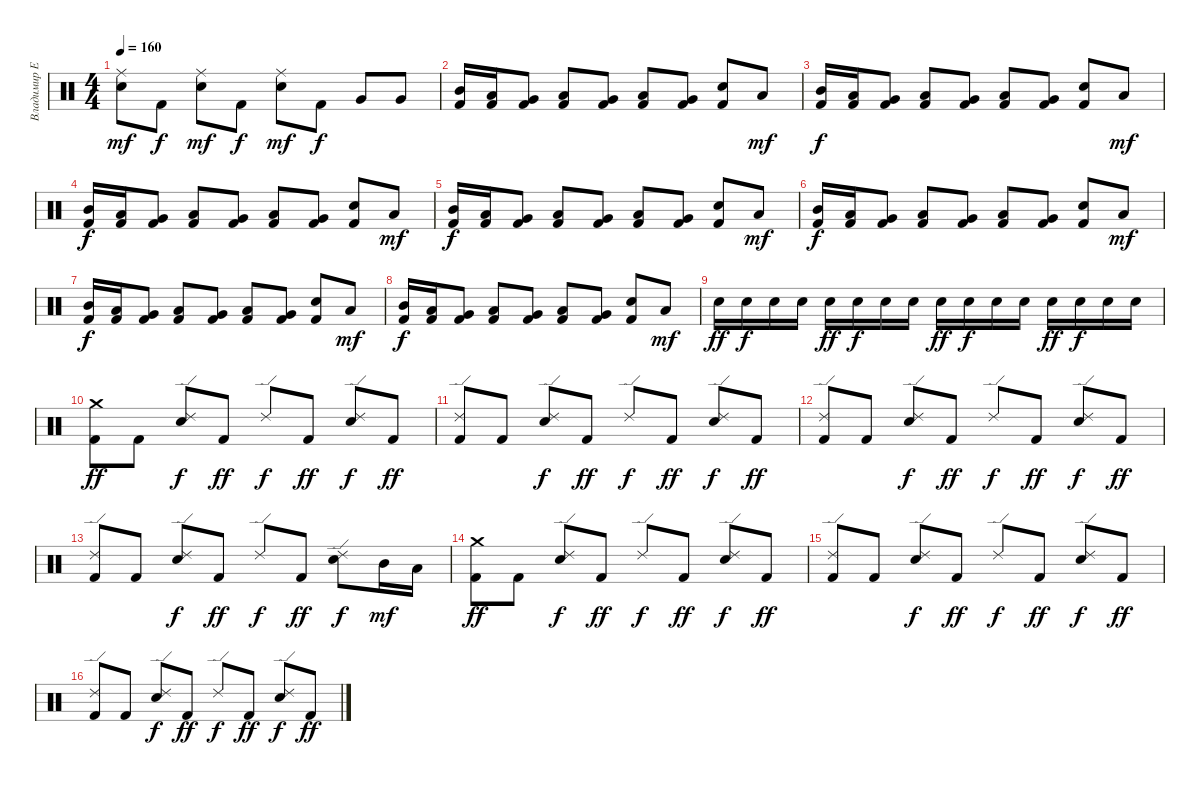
\track ("Владимир Ермаков" "Владимир Е") {instrument percussion}
\staff {score}
\articulation defaults
\ts (4 4)
\tempo 160
\clef neutral
\ks c
("Ride (middle)" "Electric Snare (hit)").8{dy mf} "Kick (hit) 2".8{dy f} ("Ride (middle)" "Electric Snare (hit)").8{dy mf} "Kick (hit) 2".8{dy f} ("Ride (middle)" "Electric Snare (hit)").8{dy mf} "Kick (hit) 2".8{dy f} "Very Low Tom (hit)".8 "Very Low Tom (hit)".8 |
("Kick (hit) 2" "Mid Tom (hit)").16 ("Kick (hit) 2" "Low Tom (hit)").16 ("Kick (hit) 2" "Very Low Tom (hit)").8 ("Kick (hit) 2" "Low Tom (hit)").8 ("Kick (hit) 2" "Very Low Tom (hit)").8 ("Kick (hit) 2" "Low Tom (hit)").8 ("Kick (hit) 2" "Very Low Tom (hit)").8 ("Kick (hit) 2" "Electric Snare (hit)").8 "Low Tom (hit)".8{dy mf} |
("Kick (hit) 2" "Mid Tom (hit)").16{dy f} ("Kick (hit) 2" "Low Tom (hit)").16 ("Kick (hit) 2" "Very Low Tom (hit)").8 ("Kick (hit) 2" "Low Tom (hit)").8 ("Kick (hit) 2" "Very Low Tom (hit)").8 ("Kick (hit) 2" "Low Tom (hit)").8 ("Kick (hit) 2" "Very Low Tom (hit)").8 ("Kick (hit) 2" "Electric Snare (hit)").8 "Low Tom (hit)".8{dy mf} |
("Kick (hit) 2" "Mid Tom (hit)").16{dy f} ("Kick (hit) 2" "Low Tom (hit)").16 ("Kick (hit) 2" "Very Low Tom (hit)").8 ("Kick (hit) 2" "Low Tom (hit)").8 ("Kick (hit) 2" "Very Low Tom (hit)").8 ("Kick (hit) 2" "Low Tom (hit)").8 ("Kick (hit) 2" "Very Low Tom (hit)").8 ("Kick (hit) 2" "Electric Snare (hit)").8 "Low Tom (hit)".8{dy mf} |
("Kick (hit) 2" "Mid Tom (hit)").16{dy f} ("Kick (hit) 2" "Low Tom (hit)").16 ("Kick (hit) 2" "Very Low Tom (hit)").8 ("Kick (hit) 2" "Low Tom (hit)").8 ("Kick (hit) 2" "Very Low Tom (hit)").8 ("Kick (hit) 2" "Low Tom (hit)").8 ("Kick (hit) 2" "Very Low Tom (hit)").8 ("Kick (hit) 2" "Electric Snare (hit)").8 "Low Tom (hit)".8{dy mf} |
("Kick (hit) 2" "Mid Tom (hit)").16{dy f} ("Kick (hit) 2" "Low Tom (hit)").16 ("Kick (hit) 2" "Very Low Tom (hit)").8 ("Kick (hit) 2" "Low Tom (hit)").8 ("Kick (hit) 2" "Very Low Tom (hit)").8 ("Kick (hit) 2" "Low Tom (hit)").8 ("Kick (hit) 2" "Very Low Tom (hit)").8 ("Kick (hit) 2" "Electric Snare (hit)").8 "Low Tom (hit)".8{dy mf} |
("Kick (hit) 2" "Mid Tom (hit)").16{dy f} ("Kick (hit) 2" "Low Tom (hit)").16 ("Kick (hit) 2" "Very Low Tom (hit)").8 ("Kick (hit) 2" "Low Tom (hit)").8 ("Kick (hit) 2" "Very Low Tom (hit)").8 ("Kick (hit) 2" "Low Tom (hit)").8 ("Kick (hit) 2" "Very Low Tom (hit)").8 ("Kick (hit) 2" "Electric Snare (hit)").8 "Low Tom (hit)".8{dy mf} |
("Kick (hit) 2" "Mid Tom (hit)").16{dy f} ("Kick (hit) 2" "Low Tom (hit)").16 ("Kick (hit) 2" "Very Low Tom (hit)").8 ("Kick (hit) 2" "Low Tom (hit)").8 ("Kick (hit) 2" "Very Low Tom (hit)").8 ("Kick (hit) 2" "Low Tom (hit)").8 ("Kick (hit) 2" "Very Low Tom (hit)").8 ("Kick (hit) 2" "Electric Snare (hit)").8 "Low Tom (hit)".8{dy mf} |
"Electric Snare (hit)".16{dy ff} "Electric Snare (hit)".16{dy f} "Electric Snare (hit)".16 "Electric Snare (hit)".16 "Electric Snare (hit)".16{dy ff} "Electric Snare (hit)".16{dy f} "Electric Snare (hit)".16 "Electric Snare (hit)".16 "Electric Snare (hit)".16{dy ff} "Electric Snare (hit)".16{dy f} "Electric Snare (hit)".16 "Electric Snare (hit)".16 "Electric Snare (hit)".16{dy ff} "Electric Snare (hit)".16{dy f} "Electric Snare (hit)".16 "Electric Snare (hit)".16 |
("Crash medium (hit)" "Kick (hit) 2").8{dy ff} "Kick (hit) 2".8 ("Ride (edge) 2" "Electric Snare (hit)").8{dy f} "Kick (hit) 2".8{dy ff} "Ride (edge) 2".8{dy f} "Kick (hit) 2".8{dy ff} ("Ride (edge) 2" "Electric Snare (hit)").8{dy f} "Kick (hit) 2".8{dy ff} |
("Ride (edge) 2" "Kick (hit) 2").8 "Kick (hit) 2".8 ("Ride (edge) 2" "Electric Snare (hit)").8{dy f} "Kick (hit) 2".8{dy ff} "Ride (edge) 2".8{dy f} "Kick (hit) 2".8{dy ff} ("Ride (edge) 2" "Electric Snare (hit)").8{dy f} "Kick (hit) 2".8{dy ff} |
("Ride (edge) 2" "Kick (hit) 2").8 "Kick (hit) 2".8 ("Ride (edge) 2" "Electric Snare (hit)").8{dy f} "Kick (hit) 2".8{dy ff} "Ride (edge) 2".8{dy f} "Kick (hit) 2".8{dy ff} ("Ride (edge) 2" "Electric Snare (hit)").8{dy f} "Kick (hit) 2".8{dy ff} |
("Ride (edge) 2" "Kick (hit) 2").8 "Kick (hit) 2".8 ("Ride (edge) 2" "Electric Snare (hit)").8{dy f} "Kick (hit) 2".8{dy ff} "Ride (edge) 2".8{dy f} "Kick (hit) 2".8{dy ff} ("Ride (edge) 2" "Electric Snare (hit)").8{dy f} "Mid Tom (hit)".16{dy mf} "Low Tom (hit)".16 |
("Crash medium (hit)" "Kick (hit) 2").8{dy ff} "Kick (hit) 2".8 ("Ride (edge) 2" "Electric Snare (hit)").8{dy f} "Kick (hit) 2".8{dy ff} "Ride (edge) 2".8{dy f} "Kick (hit) 2".8{dy ff} ("Ride (edge) 2" "Electric Snare (hit)").8{dy f} "Kick (hit) 2".8{dy ff} |
("Ride (edge) 2" "Kick (hit) 2").8 "Kick (hit) 2".8 ("Ride (edge) 2" "Electric Snare (hit)").8{dy f} "Kick (hit) 2".8{dy ff} "Ride (edge) 2".8{dy f} "Kick (hit) 2".8{dy ff} ("Ride (edge) 2" "Electric Snare (hit)").8{dy f} "Kick (hit) 2".8{dy ff} |
("Ride (edge) 2" "Kick (hit) 2").8 "Kick (hit) 2".8 ("Ride (edge) 2" "Electric Snare (hit)").8{dy f} "Kick (hit) 2".8{dy ff} "Ride (edge) 2".8{dy f} "Kick (hit) 2".8{dy ff} ("Ride (edge) 2" "Electric Snare (hit)").8{dy f} "Kick (hit) 2".8{dy ff}
